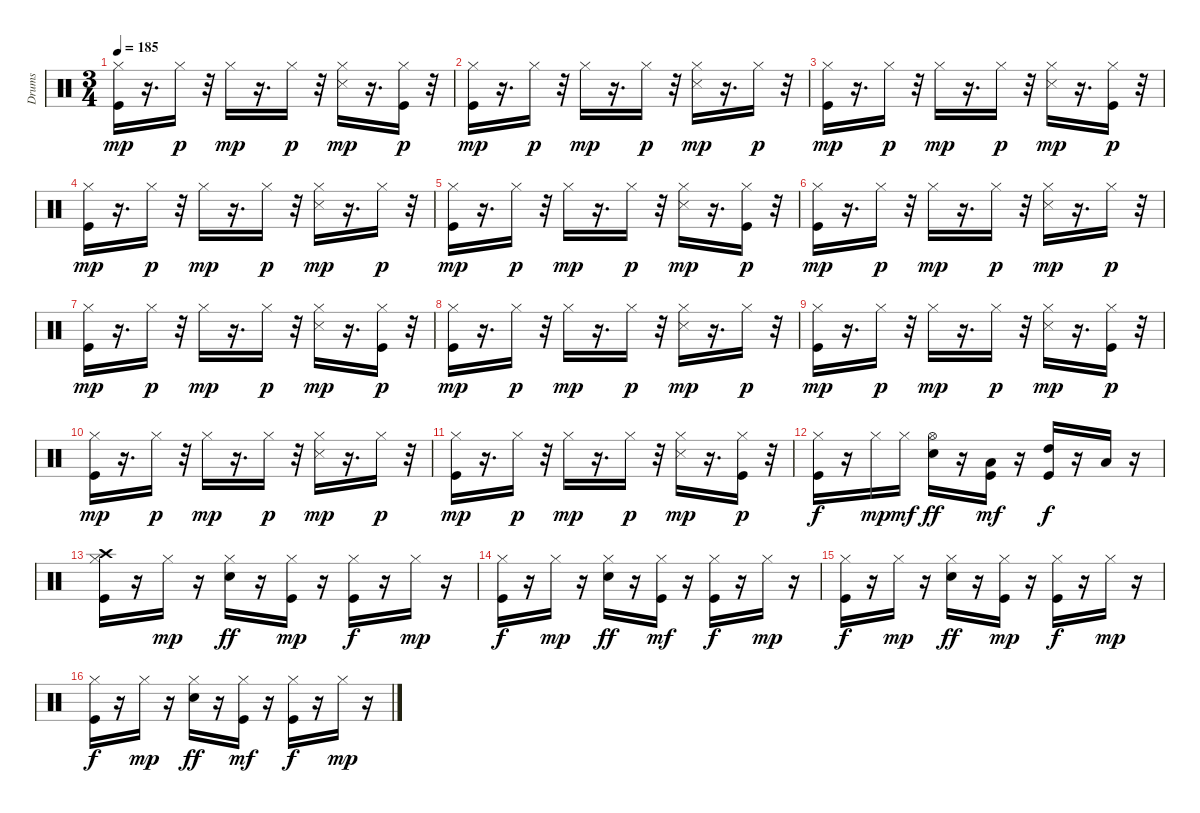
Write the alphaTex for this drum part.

\track ("Drums " "Drums ") {instrument percussion}
\staff {score}
\articulation defaults
\ts (3 4)
\tempo 185
\clef neutral
\ks c
("Kick (hit)" "Hi-Hat (closed)").16{dy mp} r.16{d} "Hi-Hat (closed)".16{dy p} r.32 "Hi-Hat (closed)".16{dy mp} r.16{d} "Hi-Hat (closed)".16{dy p} r.32 ("Hi-Hat (closed)" "Snare (side stick) 3").16{dy mp} r.16{d} ("Kick (hit)" "Hi-Hat (closed)").16{dy p} r.32 |
("Kick (hit)" "Hi-Hat (closed)").16{dy mp} r.16{d} "Hi-Hat (closed)".16{dy p} r.32 "Hi-Hat (closed)".16{dy mp} r.16{d} "Hi-Hat (closed)".16{dy p} r.32 ("Hi-Hat (closed)" "Snare (side stick) 3").16{dy mp} r.16{d} "Hi-Hat (closed)".16{dy p} r.32 |
("Kick (hit)" "Hi-Hat (closed)").16{dy mp} r.16{d} "Hi-Hat (closed)".16{dy p} r.32 "Hi-Hat (closed)".16{dy mp} r.16{d} "Hi-Hat (closed)".16{dy p} r.32 ("Hi-Hat (closed)" "Snare (side stick) 3").16{dy mp} r.16{d} ("Kick (hit)" "Hi-Hat (closed)").16{dy p} r.32 |
("Kick (hit)" "Hi-Hat (closed)").16{dy mp} r.16{d} "Hi-Hat (closed)".16{dy p} r.32 "Hi-Hat (closed)".16{dy mp} r.16{d} "Hi-Hat (closed)".16{dy p} r.32 ("Hi-Hat (closed)" "Snare (side stick) 3").16{dy mp} r.16{d} "Hi-Hat (closed)".16{dy p} r.32 |
("Kick (hit)" "Hi-Hat (closed)").16{dy mp} r.16{d} "Hi-Hat (closed)".16{dy p} r.32 "Hi-Hat (closed)".16{dy mp} r.16{d} "Hi-Hat (closed)".16{dy p} r.32 ("Hi-Hat (closed)" "Snare (side stick) 3").16{dy mp} r.16{d} ("Kick (hit)" "Hi-Hat (closed)").16{dy p} r.32 |
("Kick (hit)" "Hi-Hat (closed)").16{dy mp} r.16{d} "Hi-Hat (closed)".16{dy p} r.32 "Hi-Hat (closed)".16{dy mp} r.16{d} "Hi-Hat (closed)".16{dy p} r.32 ("Hi-Hat (closed)" "Snare (side stick) 3").16{dy mp} r.16{d} "Hi-Hat (closed)".16{dy p} r.32 |
("Kick (hit)" "Hi-Hat (closed)").16{dy mp} r.16{d} "Hi-Hat (closed)".16{dy p} r.32 "Hi-Hat (closed)".16{dy mp} r.16{d} "Hi-Hat (closed)".16{dy p} r.32 ("Hi-Hat (closed)" "Snare (side stick) 3").16{dy mp} r.16{d} ("Kick (hit)" "Hi-Hat (closed)").16{dy p} r.32 |
("Kick (hit)" "Hi-Hat (closed)").16{dy mp} r.16{d} "Hi-Hat (closed)".16{dy p} r.32 "Hi-Hat (closed)".16{dy mp} r.16{d} "Hi-Hat (closed)".16{dy p} r.32 ("Hi-Hat (closed)" "Snare (side stick) 3").16{dy mp} r.16{d} "Hi-Hat (closed)".16{dy p} r.32 |
("Kick (hit)" "Hi-Hat (closed)").16{dy mp} r.16{d} "Hi-Hat (closed)".16{dy p} r.32 "Hi-Hat (closed)".16{dy mp} r.16{d} "Hi-Hat (closed)".16{dy p} r.32 ("Hi-Hat (closed)" "Snare (side stick) 3").16{dy mp} r.16{d} ("Kick (hit)" "Hi-Hat (closed)").16{dy p} r.32 |
("Kick (hit)" "Hi-Hat (closed)").16{dy mp} r.16{d} "Hi-Hat (closed)".16{dy p} r.32 "Hi-Hat (closed)".16{dy mp} r.16{d} "Hi-Hat (closed)".16{dy p} r.32 ("Hi-Hat (closed)" "Snare (side stick) 3").16{dy mp} r.16{d} "Hi-Hat (closed)".16{dy p} r.32 |
("Kick (hit)" "Hi-Hat (closed)").16{dy mp} r.16{d} "Hi-Hat (closed)".16{dy p} r.32 "Hi-Hat (closed)".16{dy mp} r.16{d} "Hi-Hat (closed)".16{dy p} r.32 ("Hi-Hat (closed)" "Snare (side stick) 3").16{dy mp} r.16{d} ("Kick (hit)" "Hi-Hat (closed)").16{dy p} r.32 |
("Kick (hit)" "Hi-Hat (closed)").16{dy f} r.16 "Hi-Hat (closed)".16{dy mp} "Hi-Hat (closed)".16{dy mf} ("Snare (hit) 2" "Hi-Hat (open)").16{dy ff} r.16 ("Kick (hit)" "Low Tom (hit)").16{dy mf} r.16 ("Kick (hit)" "High Tom (hit)").16{dy f} r.16 "Low Tom (hit)".16 r.16 |
("Kick (hit)" "Hi-Hat (closed)" "Crash high (hit)").16 r.16 "Hi-Hat (closed)".16{dy mp} r.16 ("Snare (hit) 2" "Hi-Hat (closed)").16{dy ff} r.16 ("Kick (hit)" "Hi-Hat (closed)").16{dy mp} r.16 ("Kick (hit)" "Hi-Hat (closed)").16{dy f} r.16 "Hi-Hat (closed)".16{dy mp} r.16 |
("Kick (hit)" "Hi-Hat (closed)").16{dy f} r.16 "Hi-Hat (closed)".16{dy mp} r.16 ("Snare (hit) 2" "Hi-Hat (closed)").16{dy ff} r.16 ("Kick (hit)" "Hi-Hat (closed)").16{dy mf} r.16 ("Kick (hit)" "Hi-Hat (closed)").16{dy f} r.16 "Hi-Hat (closed)".16{dy mp} r.16 |
("Kick (hit)" "Hi-Hat (closed)").16{dy f} r.16 "Hi-Hat (closed)".16{dy mp} r.16 ("Snare (hit) 2" "Hi-Hat (closed)").16{dy ff} r.16 ("Kick (hit)" "Hi-Hat (closed)").16{dy mp} r.16 ("Kick (hit)" "Hi-Hat (closed)").16{dy f} r.16 "Hi-Hat (closed)".16{dy mp} r.16 |
("Kick (hit)" "Hi-Hat (closed)").16{dy f} r.16 "Hi-Hat (closed)".16{dy mp} r.16 ("Snare (hit) 2" "Hi-Hat (closed)").16{dy ff} r.16 ("Kick (hit)" "Hi-Hat (closed)").16{dy mf} r.16 ("Kick (hit)" "Hi-Hat (closed)").16{dy f} r.16 "Hi-Hat (closed)".16{dy mp} r.16
